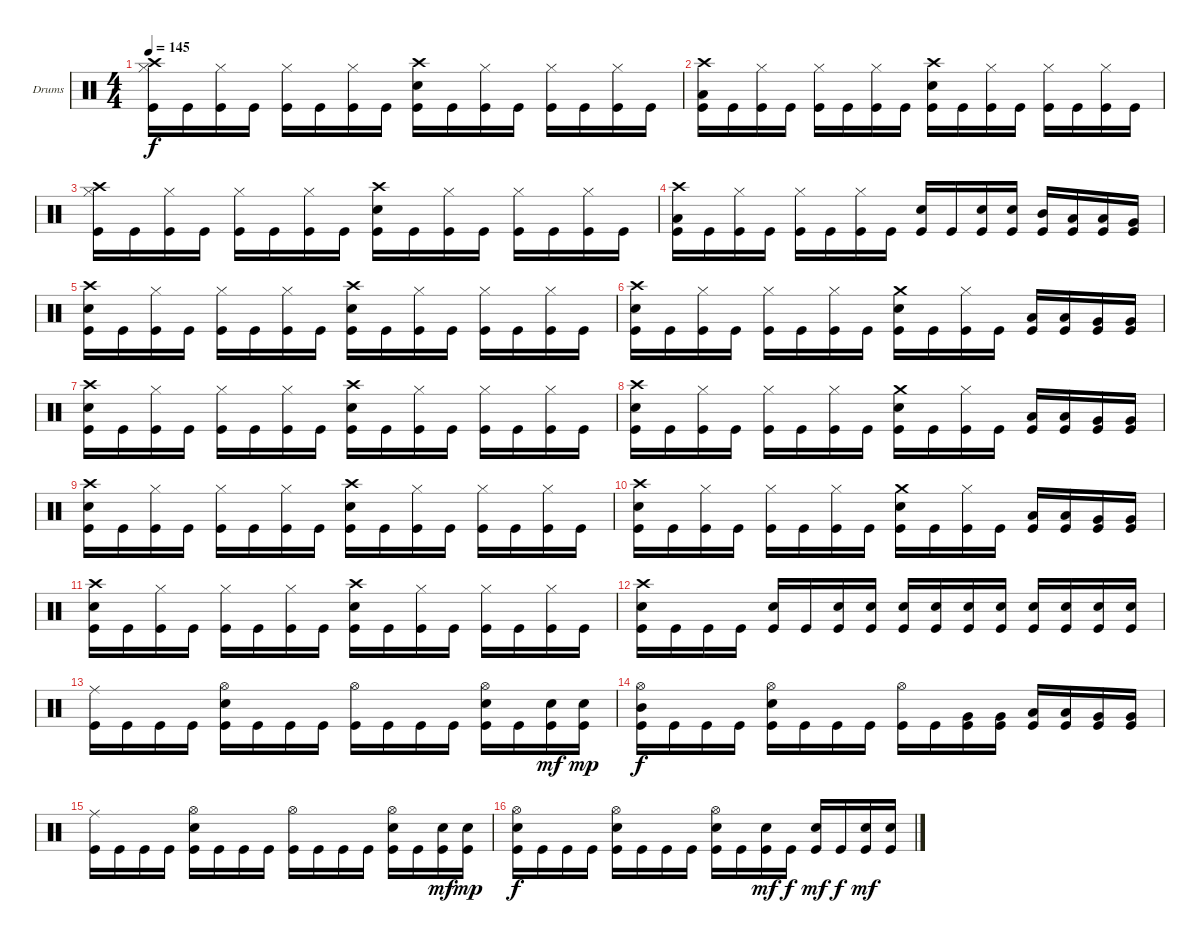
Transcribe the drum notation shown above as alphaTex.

\bracketExtendMode groupsimilarinstruments
\firstSystemTrackNameOrientation horizontal
\otherSystemsTrackNameOrientation horizontal
\track ("Drumkit" "Drums") {instrument percussion}
\staff {score}
\articulation defaults
\ts (4 4)
\tempo 145
\clef neutral
\ks c
("Crash high (hit)" "Hi-Hat (closed)" "Kick (hit)").16{dy f} "Kick (hit)".16 ("Hi-Hat (closed)" "Kick (hit)").16 "Kick (hit)".16 ("Hi-Hat (closed)" "Kick (hit)").16 "Kick (hit)".16 ("Hi-Hat (closed)" "Kick (hit)").16 "Kick (hit)".16 ("Crash high (hit)" "Snare (hit) 2" "Kick (hit)").16 "Kick (hit)".16 ("Hi-Hat (closed)" "Kick (hit)").16 "Kick (hit)".16 ("Hi-Hat (closed)" "Kick (hit)").16 "Kick (hit)".16 ("Hi-Hat (closed)" "Kick (hit)").16 "Kick (hit)".16 |
("Crash high (hit)" "Low Tom (hit)" "Kick (hit)").16 "Kick (hit)".16 ("Hi-Hat (closed)" "Kick (hit)").16 "Kick (hit)".16 ("Hi-Hat (closed)" "Kick (hit)").16 "Kick (hit)".16 ("Hi-Hat (closed)" "Kick (hit)").16 "Kick (hit)".16 ("Crash high (hit)" "Snare (hit) 2" "Kick (hit)").16 "Kick (hit)".16 ("Hi-Hat (closed)" "Kick (hit)").16 "Kick (hit)".16 ("Hi-Hat (closed)" "Kick (hit)").16 "Kick (hit)".16 ("Hi-Hat (closed)" "Kick (hit)").16 "Kick (hit)".16 |
("Crash high (hit)" "Hi-Hat (closed)" "Kick (hit)").16 "Kick (hit)".16 ("Hi-Hat (closed)" "Kick (hit)").16 "Kick (hit)".16 ("Hi-Hat (closed)" "Kick (hit)").16 "Kick (hit)".16 ("Hi-Hat (closed)" "Kick (hit)").16 "Kick (hit)".16 ("Crash high (hit)" "Snare (hit) 2" "Kick (hit)").16 "Kick (hit)".16 ("Hi-Hat (closed)" "Kick (hit)").16 "Kick (hit)".16 ("Hi-Hat (closed)" "Kick (hit)").16 "Kick (hit)".16 ("Hi-Hat (closed)" "Kick (hit)").16 "Kick (hit)".16 |
("Crash high (hit)" "Low Tom (hit)" "Kick (hit)").16 "Kick (hit)".16 ("Hi-Hat (closed)" "Kick (hit)").16 "Kick (hit)".16 ("Hi-Hat (closed)" "Kick (hit)").16 "Kick (hit)".16 ("Hi-Hat (closed)" "Kick (hit)").16 "Kick (hit)".16 ("Snare (hit) 2" "Kick (hit)").16 "Kick (hit)".16 ("Snare (hit) 2" "Kick (hit)").16 ("Snare (hit) 2" "Kick (hit)").16 ("Mid Tom (hit)" "Kick (hit)").16 ("Low Tom (hit)" "Kick (hit)").16 ("Low Tom (hit)" "Kick (hit)").16 ("Very Low Tom (hit)" "Kick (hit)").16 |
("Crash high (hit)" "Snare (hit) 2" "Kick (hit)").16 "Kick (hit)".16 ("Hi-Hat (closed)" "Kick (hit)").16 "Kick (hit)".16 ("Hi-Hat (closed)" "Kick (hit)").16 "Kick (hit)".16 ("Hi-Hat (closed)" "Kick (hit)").16 "Kick (hit)".16 ("Crash high (hit)" "Snare (hit) 2" "Kick (hit)").16 "Kick (hit)".16 ("Hi-Hat (closed)" "Kick (hit)").16 "Kick (hit)".16 ("Hi-Hat (closed)" "Kick (hit)").16 "Kick (hit)".16 ("Hi-Hat (closed)" "Kick (hit)").16 "Kick (hit)".16 |
("Crash high (hit)" "Snare (hit) 2" "Kick (hit)").16 "Kick (hit)".16 ("Hi-Hat (closed)" "Kick (hit)").16 "Kick (hit)".16 ("Hi-Hat (closed)" "Kick (hit)").16 "Kick (hit)".16 ("Hi-Hat (closed)" "Kick (hit)").16 "Kick (hit)".16 ("Crash medium (hit)" "Snare (hit) 2" "Kick (hit)").16 "Kick (hit)".16 ("Hi-Hat (closed)" "Kick (hit)").16 "Kick (hit)".16 ("Low Tom (hit)" "Kick (hit)").16 ("Low Tom (hit)" "Kick (hit)").16 ("Very Low Tom (hit)" "Kick (hit)").16 ("Very Low Tom (hit)" "Kick (hit)").16 |
("Crash high (hit)" "Snare (hit) 2" "Kick (hit)").16 "Kick (hit)".16 ("Hi-Hat (closed)" "Kick (hit)").16 "Kick (hit)".16 ("Hi-Hat (closed)" "Kick (hit)").16 "Kick (hit)".16 ("Hi-Hat (closed)" "Kick (hit)").16 "Kick (hit)".16 ("Crash high (hit)" "Snare (hit) 2" "Kick (hit)").16 "Kick (hit)".16 ("Hi-Hat (closed)" "Kick (hit)").16 "Kick (hit)".16 ("Hi-Hat (closed)" "Kick (hit)").16 "Kick (hit)".16 ("Hi-Hat (closed)" "Kick (hit)").16 "Kick (hit)".16 |
("Crash high (hit)" "Snare (hit) 2" "Kick (hit)").16 "Kick (hit)".16 ("Hi-Hat (closed)" "Kick (hit)").16 "Kick (hit)".16 ("Hi-Hat (closed)" "Kick (hit)").16 "Kick (hit)".16 ("Hi-Hat (closed)" "Kick (hit)").16 "Kick (hit)".16 ("Crash medium (hit)" "Snare (hit) 2" "Kick (hit)").16 "Kick (hit)".16 ("Hi-Hat (closed)" "Kick (hit)").16 "Kick (hit)".16 ("Low Tom (hit)" "Kick (hit)").16 ("Low Tom (hit)" "Kick (hit)").16 ("Very Low Tom (hit)" "Kick (hit)").16 ("Very Low Tom (hit)" "Kick (hit)").16 |
("Crash high (hit)" "Snare (hit) 2" "Kick (hit)").16 "Kick (hit)".16 ("Hi-Hat (closed)" "Kick (hit)").16 "Kick (hit)".16 ("Hi-Hat (closed)" "Kick (hit)").16 "Kick (hit)".16 ("Hi-Hat (closed)" "Kick (hit)").16 "Kick (hit)".16 ("Crash high (hit)" "Snare (hit) 2" "Kick (hit)").16 "Kick (hit)".16 ("Hi-Hat (closed)" "Kick (hit)").16 "Kick (hit)".16 ("Hi-Hat (closed)" "Kick (hit)").16 "Kick (hit)".16 ("Hi-Hat (closed)" "Kick (hit)").16 "Kick (hit)".16 |
("Crash high (hit)" "Snare (hit) 2" "Kick (hit)").16 "Kick (hit)".16 ("Hi-Hat (closed)" "Kick (hit)").16 "Kick (hit)".16 ("Hi-Hat (closed)" "Kick (hit)").16 "Kick (hit)".16 ("Hi-Hat (closed)" "Kick (hit)").16 "Kick (hit)".16 ("Crash medium (hit)" "Snare (hit) 2" "Kick (hit)").16 "Kick (hit)".16 ("Hi-Hat (closed)" "Kick (hit)").16 "Kick (hit)".16 ("Low Tom (hit)" "Kick (hit)").16 ("Low Tom (hit)" "Kick (hit)").16 ("Very Low Tom (hit)" "Kick (hit)").16 ("Very Low Tom (hit)" "Kick (hit)").16 |
("Crash high (hit)" "Snare (hit) 2" "Kick (hit)").16 "Kick (hit)".16 ("Hi-Hat (closed)" "Kick (hit)").16 "Kick (hit)".16 ("Hi-Hat (closed)" "Kick (hit)").16 "Kick (hit)".16 ("Hi-Hat (closed)" "Kick (hit)").16 "Kick (hit)".16 ("Crash high (hit)" "Snare (hit) 2" "Kick (hit)").16 "Kick (hit)".16 ("Hi-Hat (closed)" "Kick (hit)").16 "Kick (hit)".16 ("Hi-Hat (closed)" "Kick (hit)").16 "Kick (hit)".16 ("Hi-Hat (closed)" "Kick (hit)").16 "Kick (hit)".16 |
("Crash high (hit)" "Snare (hit) 2" "Kick (hit)").16 "Kick (hit)".16 "Kick (hit)".16 "Kick (hit)".16 ("Snare (hit) 2" "Kick (hit)").16 "Kick (hit)".16 ("Snare (hit) 2" "Kick (hit)").16 ("Snare (hit) 2" "Kick (hit)").16 ("Snare (hit) 2" "Kick (hit)").16 ("Snare (hit) 2" "Kick (hit)").16 ("Snare (hit) 2" "Kick (hit)").16 ("Snare (hit) 2" "Kick (hit)").16 ("Snare (hit) 2" "Kick (hit)").16 ("Snare (hit) 2" "Kick (hit)").16 ("Snare (hit) 2" "Kick (hit)").16 ("Snare (hit) 2" "Kick (hit)").16 |
("Ride (middle)" "Kick (hit)").16 "Kick (hit)".16 "Kick (hit)".16 "Kick (hit)".16 ("Hi-Hat (open)" "Snare (hit) 2" "Kick (hit)").16 "Kick (hit)".16 "Kick (hit)".16 "Kick (hit)".16 ("Hi-Hat (open)" "Kick (hit)").16 "Kick (hit)".16 "Kick (hit)".16 "Kick (hit)".16 ("Hi-Hat (open)" "Snare (hit) 2" "Kick (hit)").16 "Kick (hit)".16 ("Snare (hit) 2" "Kick (hit)").16{dy mf} ("Snare (hit) 2" "Kick (hit)").16{dy mp} |
("Hi-Hat (open)" "Mid Tom (hit)" "Kick (hit)").16{dy f} "Kick (hit)".16 "Kick (hit)".16 "Kick (hit)".16 ("Hi-Hat (open)" "Snare (hit) 2" "Kick (hit)").16 "Kick (hit)".16 "Kick (hit)".16 "Kick (hit)".16 ("Hi-Hat (open)" "Kick (hit)").16 "Kick (hit)".16 ("Very Low Tom (hit)" "Kick (hit)").16 ("Very Low Tom (hit)" "Kick (hit)").16 ("Low Tom (hit)" "Kick (hit)").16 ("Low Tom (hit)" "Kick (hit)").16 ("Very Low Tom (hit)" "Kick (hit)").16 ("Very Low Tom (hit)" "Kick (hit)").16 |
("Ride (middle)" "Kick (hit)").16 "Kick (hit)".16 "Kick (hit)".16 "Kick (hit)".16 ("Hi-Hat (open)" "Snare (hit) 2" "Kick (hit)").16 "Kick (hit)".16 "Kick (hit)".16 "Kick (hit)".16 ("Hi-Hat (open)" "Kick (hit)").16 "Kick (hit)".16 "Kick (hit)".16 "Kick (hit)".16 ("Hi-Hat (open)" "Snare (hit) 2" "Kick (hit)").16 "Kick (hit)".16 ("Snare (hit) 2" "Kick (hit)").16{dy mf} ("Snare (hit) 2" "Kick (hit)").16{dy mp} |
("Hi-Hat (open)" "Snare (hit) 2" "Kick (hit)").16{dy f} "Kick (hit)".16 "Kick (hit)".16 "Kick (hit)".16 ("Hi-Hat (open)" "Snare (hit) 2" "Kick (hit)").16 "Kick (hit)".16 "Kick (hit)".16 "Kick (hit)".16 ("Hi-Hat (open)" "Snare (hit) 2" "Kick (hit)").16 "Kick (hit)".16 ("Snare (hit) 2" "Kick (hit)").16{dy mf} "Kick (hit)".16{dy f} ("Snare (hit) 2" "Kick (hit)").16{dy mf} "Kick (hit)".16{dy f} ("Snare (hit) 2" "Kick (hit)").16{dy mf} ("Snare (hit) 2" "Kick (hit)").16
